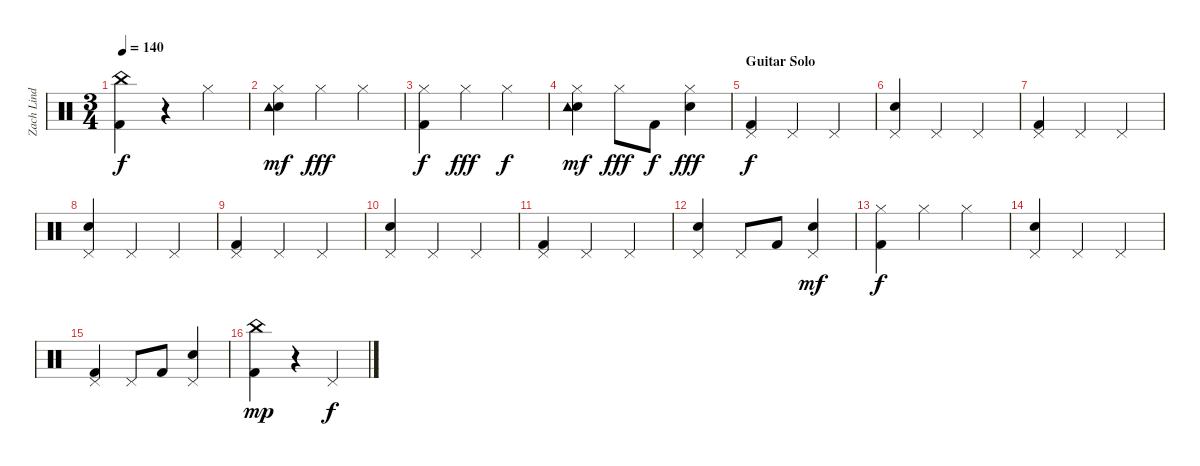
\track ("Zach Lind - Drums" "Zach Lind ") {instrument percussion}
\staff {score}
\articulation defaults
\ts (3 4)
\tempo 140
\clef neutral
\ks c
("China (hit)" "Kick (hit) 2").4{dy f} r.4 "Hi-Hat (closed)".4 |
("Hi-Hat (closed)" "Electric Snare (hit)" "Tambourine (hit)").4{dy mf} "Hi-Hat (closed)".4{dy fff} "Hi-Hat (closed)".4 |
("Hi-Hat (closed)" "Kick (hit) 2").4{dy f} "Hi-Hat (closed)".4{dy fff} "Hi-Hat (closed)".4{dy f} |
("Hi-Hat (closed)" "Electric Snare (hit)" "Tambourine (hit)").4{dy mf} "Hi-Hat (closed)".8{dy fff} "Kick (hit) 2".8{dy f} ("Hi-Hat (closed)" "Electric Snare (hit)").4{dy fff} |
\section ("" "Guitar Solo")
("Pedal Hi-Hat (hit)" "Kick (hit) 2").4{dy f} "Pedal Hi-Hat (hit)".4 "Pedal Hi-Hat (hit)".4 |
("Pedal Hi-Hat (hit)" "Electric Snare (hit)").4 "Pedal Hi-Hat (hit)".4 "Pedal Hi-Hat (hit)".4 |
("Pedal Hi-Hat (hit)" "Kick (hit) 2").4 "Pedal Hi-Hat (hit)".4 "Pedal Hi-Hat (hit)".4 |
("Pedal Hi-Hat (hit)" "Electric Snare (hit)").4 "Pedal Hi-Hat (hit)".4 "Pedal Hi-Hat (hit)".4 |
("Pedal Hi-Hat (hit)" "Kick (hit) 2").4 "Pedal Hi-Hat (hit)".4 "Pedal Hi-Hat (hit)".4 |
("Pedal Hi-Hat (hit)" "Electric Snare (hit)").4 "Pedal Hi-Hat (hit)".4 "Pedal Hi-Hat (hit)".4 |
("Pedal Hi-Hat (hit)" "Kick (hit) 2").4 "Pedal Hi-Hat (hit)".4 "Pedal Hi-Hat (hit)".4 |
("Pedal Hi-Hat (hit)" "Electric Snare (hit)").4 "Pedal Hi-Hat (hit)".8 "Kick (hit) 2".8 ("Pedal Hi-Hat (hit)" "Electric Snare (hit)").4{dy mf} |
("Hi-Hat (closed)" "Kick (hit) 2").4{dy f} "Hi-Hat (closed)".4 "Hi-Hat (closed)".4 |
("Pedal Hi-Hat (hit)" "Electric Snare (hit)").4 "Pedal Hi-Hat (hit)".4 "Pedal Hi-Hat (hit)".4 |
("Pedal Hi-Hat (hit)" "Kick (hit) 2").4 "Pedal Hi-Hat (hit)".8 "Kick (hit) 2".8 ("Pedal Hi-Hat (hit)" "Electric Snare (hit)").4 |
("China (hit)" "Kick (hit) 2").4{dy mp} r.4 "Pedal Hi-Hat (hit)".4{dy f}
